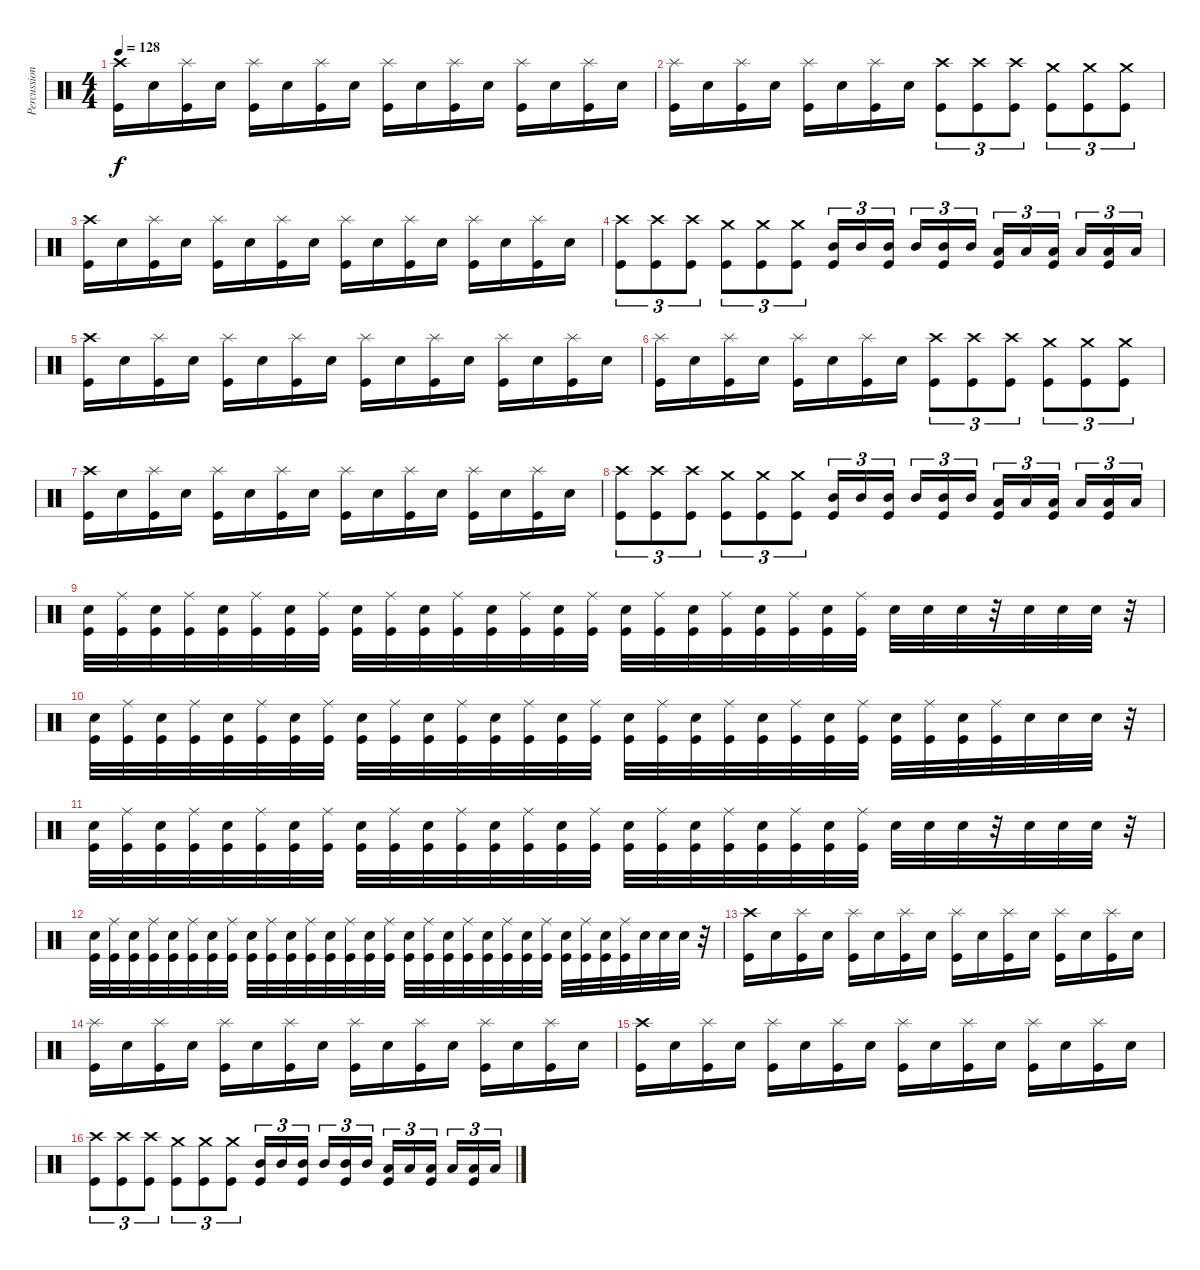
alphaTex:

\track ("Percussion" "Percussion") {instrument percussion}
\staff {score}
\articulation defaults
\ts (4 4)
\tempo 128
\clef neutral
\ks c
("Crash high (hit)" "Kick (hit)").16{dy f} "Electric Snare (hit)".16 ("Splash (hit)" "Kick (hit)").16 "Electric Snare (hit)".16 ("Splash (hit)" "Kick (hit)").16 "Electric Snare (hit)".16 ("Splash (hit)" "Kick (hit)").16 "Electric Snare (hit)".16 ("Splash (hit)" "Kick (hit)").16 "Electric Snare (hit)".16 ("Splash (hit)" "Kick (hit)").16 "Electric Snare (hit)".16 ("Splash (hit)" "Kick (hit)").16 "Electric Snare (hit)".16 ("Splash (hit)" "Kick (hit)").16 "Electric Snare (hit)".16 |
("Splash (hit)" "Kick (hit)").16 "Electric Snare (hit)".16 ("Splash (hit)" "Kick (hit)").16 "Electric Snare (hit)".16 ("Splash (hit)" "Kick (hit)").16 "Electric Snare (hit)".16 ("Splash (hit)" "Kick (hit)").16 "Electric Snare (hit)".16 ("Crash high (hit)" "Kick (hit)").8{tu (3 2)} ("Crash high (hit)" "Kick (hit)").8{tu (3 2)} ("Crash high (hit)" "Kick (hit)").8{tu (3 2)} ("Crash medium (hit)" "Kick (hit)").8{tu (3 2)} ("Crash medium (hit)" "Kick (hit)").8{tu (3 2)} ("Crash medium (hit)" "Kick (hit)").8{tu (3 2)} |
("Crash high (hit)" "Kick (hit)").16 "Electric Snare (hit)".16 ("Splash (hit)" "Kick (hit)").16 "Electric Snare (hit)".16 ("Splash (hit)" "Kick (hit)").16 "Electric Snare (hit)".16 ("Splash (hit)" "Kick (hit)").16 "Electric Snare (hit)".16 ("Splash (hit)" "Kick (hit)").16 "Electric Snare (hit)".16 ("Splash (hit)" "Kick (hit)").16 "Electric Snare (hit)".16 ("Splash (hit)" "Kick (hit)").16 "Electric Snare (hit)".16 ("Splash (hit)" "Kick (hit)").16 "Electric Snare (hit)".16 |
("Crash high (hit)" "Kick (hit)").8{tu (3 2)} ("Crash high (hit)" "Kick (hit)").8{tu (3 2)} ("Crash high (hit)" "Kick (hit)").8{tu (3 2)} ("Crash medium (hit)" "Kick (hit)").8{tu (3 2)} ("Crash medium (hit)" "Kick (hit)").8{tu (3 2)} ("Crash medium (hit)" "Kick (hit)").8{tu (3 2)} ("Mid Tom (hit)" "Kick (hit)").16{tu (3 2)} "Mid Tom (hit)".16{tu (3 2)} ("Mid Tom (hit)" "Kick (hit)").16{tu (3 2)} "Mid Tom (hit)".16{tu (3 2)} ("Mid Tom (hit)" "Kick (hit)").16{tu (3 2)} "Mid Tom (hit)".16{tu (3 2)} ("Low Tom (hit)" "Kick (hit)").16{tu (3 2)} "Low Tom (hit)".16{tu (3 2)} ("Low Tom (hit)" "Kick (hit)").16{tu (3 2)} "Low Tom (hit)".16{tu (3 2)} ("Low Tom (hit)" "Kick (hit)").16{tu (3 2)} "Low Tom (hit)".16{tu (3 2)} |
("Crash high (hit)" "Kick (hit)").16 "Electric Snare (hit)".16 ("Splash (hit)" "Kick (hit)").16 "Electric Snare (hit)".16 ("Splash (hit)" "Kick (hit)").16 "Electric Snare (hit)".16 ("Splash (hit)" "Kick (hit)").16 "Electric Snare (hit)".16 ("Splash (hit)" "Kick (hit)").16 "Electric Snare (hit)".16 ("Splash (hit)" "Kick (hit)").16 "Electric Snare (hit)".16 ("Splash (hit)" "Kick (hit)").16 "Electric Snare (hit)".16 ("Splash (hit)" "Kick (hit)").16 "Electric Snare (hit)".16 |
("Splash (hit)" "Kick (hit)").16 "Electric Snare (hit)".16 ("Splash (hit)" "Kick (hit)").16 "Electric Snare (hit)".16 ("Splash (hit)" "Kick (hit)").16 "Electric Snare (hit)".16 ("Splash (hit)" "Kick (hit)").16 "Electric Snare (hit)".16 ("Crash high (hit)" "Kick (hit)").8{tu (3 2)} ("Crash high (hit)" "Kick (hit)").8{tu (3 2)} ("Crash high (hit)" "Kick (hit)").8{tu (3 2)} ("Crash medium (hit)" "Kick (hit)").8{tu (3 2)} ("Crash medium (hit)" "Kick (hit)").8{tu (3 2)} ("Crash medium (hit)" "Kick (hit)").8{tu (3 2)} |
("Crash high (hit)" "Kick (hit)").16 "Electric Snare (hit)".16 ("Splash (hit)" "Kick (hit)").16 "Electric Snare (hit)".16 ("Splash (hit)" "Kick (hit)").16 "Electric Snare (hit)".16 ("Splash (hit)" "Kick (hit)").16 "Electric Snare (hit)".16 ("Splash (hit)" "Kick (hit)").16 "Electric Snare (hit)".16 ("Splash (hit)" "Kick (hit)").16 "Electric Snare (hit)".16 ("Splash (hit)" "Kick (hit)").16 "Electric Snare (hit)".16 ("Splash (hit)" "Kick (hit)").16 "Electric Snare (hit)".16 |
("Crash high (hit)" "Kick (hit)").8{tu (3 2)} ("Crash high (hit)" "Kick (hit)").8{tu (3 2)} ("Crash high (hit)" "Kick (hit)").8{tu (3 2)} ("Crash medium (hit)" "Kick (hit)").8{tu (3 2)} ("Crash medium (hit)" "Kick (hit)").8{tu (3 2)} ("Crash medium (hit)" "Kick (hit)").8{tu (3 2)} ("Mid Tom (hit)" "Kick (hit)").16{tu (3 2)} "Mid Tom (hit)".16{tu (3 2)} ("Mid Tom (hit)" "Kick (hit)").16{tu (3 2)} "Mid Tom (hit)".16{tu (3 2)} ("Mid Tom (hit)" "Kick (hit)").16{tu (3 2)} "Mid Tom (hit)".16{tu (3 2)} ("Low Tom (hit)" "Kick (hit)").16{tu (3 2)} "Low Tom (hit)".16{tu (3 2)} ("Low Tom (hit)" "Kick (hit)").16{tu (3 2)} "Low Tom (hit)".16{tu (3 2)} ("Low Tom (hit)" "Kick (hit)").16{tu (3 2)} "Low Tom (hit)".16{tu (3 2)} |
("Electric Snare (hit)" "Kick (hit)").32 ("Ride (middle)" "Kick (hit)").32 ("Electric Snare (hit)" "Kick (hit)").32 ("Ride (middle)" "Kick (hit)").32 ("Electric Snare (hit)" "Kick (hit)").32 ("Ride (middle)" "Kick (hit)").32 ("Electric Snare (hit)" "Kick (hit)").32 ("Ride (middle)" "Kick (hit)").32 ("Electric Snare (hit)" "Kick (hit)").32 ("Ride (middle)" "Kick (hit)").32 ("Electric Snare (hit)" "Kick (hit)").32 ("Ride (middle)" "Kick (hit)").32 ("Electric Snare (hit)" "Kick (hit)").32 ("Ride (middle)" "Kick (hit)").32 ("Electric Snare (hit)" "Kick (hit)").32 ("Ride (middle)" "Kick (hit)").32 ("Electric Snare (hit)" "Kick (hit)").32 ("Ride (middle)" "Kick (hit)").32 ("Electric Snare (hit)" "Kick (hit)").32 ("Ride (middle)" "Kick (hit)").32 ("Electric Snare (hit)" "Kick (hit)").32 ("Ride (middle)" "Kick (hit)").32 ("Electric Snare (hit)" "Kick (hit)").32 ("Ride (middle)" "Kick (hit)").32 "Electric Snare (hit)".32 "Electric Snare (hit)".32 "Electric Snare (hit)".32 r.32 "Electric Snare (hit)".32 "Electric Snare (hit)".32 "Electric Snare (hit)".32 r.32 |
("Electric Snare (hit)" "Kick (hit)").32 ("Ride (middle)" "Kick (hit)").32 ("Electric Snare (hit)" "Kick (hit)").32 ("Ride (middle)" "Kick (hit)").32 ("Electric Snare (hit)" "Kick (hit)").32 ("Ride (middle)" "Kick (hit)").32 ("Electric Snare (hit)" "Kick (hit)").32 ("Ride (middle)" "Kick (hit)").32 ("Electric Snare (hit)" "Kick (hit)").32 ("Ride (middle)" "Kick (hit)").32 ("Electric Snare (hit)" "Kick (hit)").32 ("Ride (middle)" "Kick (hit)").32 ("Electric Snare (hit)" "Kick (hit)").32 ("Ride (middle)" "Kick (hit)").32 ("Electric Snare (hit)" "Kick (hit)").32 ("Ride (middle)" "Kick (hit)").32 ("Electric Snare (hit)" "Kick (hit)").32 ("Ride (middle)" "Kick (hit)").32 ("Electric Snare (hit)" "Kick (hit)").32 ("Ride (middle)" "Kick (hit)").32 ("Electric Snare (hit)" "Kick (hit)").32 ("Ride (middle)" "Kick (hit)").32 ("Electric Snare (hit)" "Kick (hit)").32 ("Ride (middle)" "Kick (hit)").32 ("Electric Snare (hit)" "Kick (hit)").32 ("Ride (middle)" "Kick (hit)").32 ("Electric Snare (hit)" "Kick (hit)").32 ("Ride (middle)" "Kick (hit)").32 "Electric Snare (hit)".32 "Electric Snare (hit)".32 "Electric Snare (hit)".32 r.32 |
("Electric Snare (hit)" "Kick (hit)").32 ("Ride (middle)" "Kick (hit)").32 ("Electric Snare (hit)" "Kick (hit)").32 ("Ride (middle)" "Kick (hit)").32 ("Electric Snare (hit)" "Kick (hit)").32 ("Ride (middle)" "Kick (hit)").32 ("Electric Snare (hit)" "Kick (hit)").32 ("Ride (middle)" "Kick (hit)").32 ("Electric Snare (hit)" "Kick (hit)").32 ("Ride (middle)" "Kick (hit)").32 ("Electric Snare (hit)" "Kick (hit)").32 ("Ride (middle)" "Kick (hit)").32 ("Electric Snare (hit)" "Kick (hit)").32 ("Ride (middle)" "Kick (hit)").32 ("Electric Snare (hit)" "Kick (hit)").32 ("Ride (middle)" "Kick (hit)").32 ("Electric Snare (hit)" "Kick (hit)").32 ("Ride (middle)" "Kick (hit)").32 ("Electric Snare (hit)" "Kick (hit)").32 ("Ride (middle)" "Kick (hit)").32 ("Electric Snare (hit)" "Kick (hit)").32 ("Ride (middle)" "Kick (hit)").32 ("Electric Snare (hit)" "Kick (hit)").32 ("Ride (middle)" "Kick (hit)").32 "Electric Snare (hit)".32 "Electric Snare (hit)".32 "Electric Snare (hit)".32 r.32 "Electric Snare (hit)".32 "Electric Snare (hit)".32 "Electric Snare (hit)".32 r.32 |
("Electric Snare (hit)" "Kick (hit)").32 ("Ride (middle)" "Kick (hit)").32 ("Electric Snare (hit)" "Kick (hit)").32 ("Ride (middle)" "Kick (hit)").32 ("Electric Snare (hit)" "Kick (hit)").32 ("Ride (middle)" "Kick (hit)").32 ("Electric Snare (hit)" "Kick (hit)").32 ("Ride (middle)" "Kick (hit)").32 ("Electric Snare (hit)" "Kick (hit)").32 ("Ride (middle)" "Kick (hit)").32 ("Electric Snare (hit)" "Kick (hit)").32 ("Ride (middle)" "Kick (hit)").32 ("Electric Snare (hit)" "Kick (hit)").32 ("Ride (middle)" "Kick (hit)").32 ("Electric Snare (hit)" "Kick (hit)").32 ("Ride (middle)" "Kick (hit)").32 ("Electric Snare (hit)" "Kick (hit)").32 ("Ride (middle)" "Kick (hit)").32 ("Electric Snare (hit)" "Kick (hit)").32 ("Ride (middle)" "Kick (hit)").32 ("Electric Snare (hit)" "Kick (hit)").32 ("Ride (middle)" "Kick (hit)").32 ("Electric Snare (hit)" "Kick (hit)").32 ("Ride (middle)" "Kick (hit)").32 ("Electric Snare (hit)" "Kick (hit)").32 ("Ride (middle)" "Kick (hit)").32 ("Electric Snare (hit)" "Kick (hit)").32 ("Ride (middle)" "Kick (hit)").32 "Electric Snare (hit)".32 "Electric Snare (hit)".32 "Electric Snare (hit)".32 r.32 |
("Crash high (hit)" "Kick (hit)").16 "Electric Snare (hit)".16 ("Splash (hit)" "Kick (hit)").16 "Electric Snare (hit)".16 ("Splash (hit)" "Kick (hit)").16 "Electric Snare (hit)".16 ("Splash (hit)" "Kick (hit)").16 "Electric Snare (hit)".16 ("Splash (hit)" "Kick (hit)").16 "Electric Snare (hit)".16 ("Splash (hit)" "Kick (hit)").16 "Electric Snare (hit)".16 ("Splash (hit)" "Kick (hit)").16 "Electric Snare (hit)".16 ("Splash (hit)" "Kick (hit)").16 "Electric Snare (hit)".16 |
("Splash (hit)" "Kick (hit)").16 "Electric Snare (hit)".16 ("Splash (hit)" "Kick (hit)").16 "Electric Snare (hit)".16 ("Splash (hit)" "Kick (hit)").16 "Electric Snare (hit)".16 ("Splash (hit)" "Kick (hit)").16 "Electric Snare (hit)".16 ("Splash (hit)" "Kick (hit)").16 "Electric Snare (hit)".16 ("Splash (hit)" "Kick (hit)").16 "Electric Snare (hit)".16 ("Splash (hit)" "Kick (hit)").16 "Electric Snare (hit)".16 ("Splash (hit)" "Kick (hit)").16 "Electric Snare (hit)".16 |
("Crash high (hit)" "Kick (hit)").16 "Electric Snare (hit)".16 ("Splash (hit)" "Kick (hit)").16 "Electric Snare (hit)".16 ("Splash (hit)" "Kick (hit)").16 "Electric Snare (hit)".16 ("Splash (hit)" "Kick (hit)").16 "Electric Snare (hit)".16 ("Splash (hit)" "Kick (hit)").16 "Electric Snare (hit)".16 ("Splash (hit)" "Kick (hit)").16 "Electric Snare (hit)".16 ("Splash (hit)" "Kick (hit)").16 "Electric Snare (hit)".16 ("Splash (hit)" "Kick (hit)").16 "Electric Snare (hit)".16 |
("Crash high (hit)" "Kick (hit)").8{tu (3 2)} ("Crash high (hit)" "Kick (hit)").8{tu (3 2)} ("Crash high (hit)" "Kick (hit)").8{tu (3 2)} ("Crash medium (hit)" "Kick (hit)").8{tu (3 2)} ("Crash medium (hit)" "Kick (hit)").8{tu (3 2)} ("Crash medium (hit)" "Kick (hit)").8{tu (3 2)} ("Mid Tom (hit)" "Kick (hit)").16{tu (3 2)} "Mid Tom (hit)".16{tu (3 2)} ("Mid Tom (hit)" "Kick (hit)").16{tu (3 2)} "Mid Tom (hit)".16{tu (3 2)} ("Mid Tom (hit)" "Kick (hit)").16{tu (3 2)} "Mid Tom (hit)".16{tu (3 2)} ("Low Tom (hit)" "Kick (hit)").16{tu (3 2)} "Low Tom (hit)".16{tu (3 2)} ("Low Tom (hit)" "Kick (hit)").16{tu (3 2)} "Low Tom (hit)".16{tu (3 2)} ("Low Tom (hit)" "Kick (hit)").16{tu (3 2)} "Low Tom (hit)".16{tu (3 2)}
